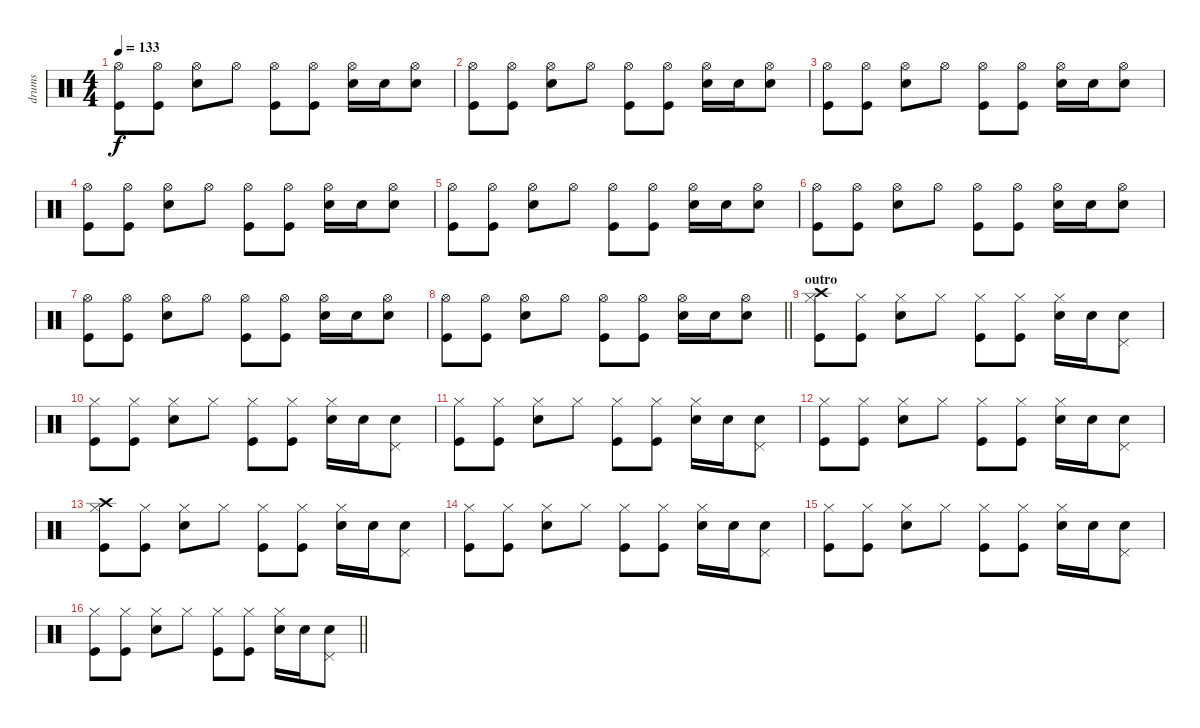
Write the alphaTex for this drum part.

\track ("drums" "drums") {instrument percussion}
\staff {score}
\articulation defaults
\ts (4 4)
\tempo 133
\clef neutral
\ks c
("Kick (hit)" "Hi-Hat (open)").8{dy f} ("Kick (hit)" "Hi-Hat (open)").8 ("Electric Snare (hit)" "Hi-Hat (open)").8 "Hi-Hat (open)".8 ("Kick (hit)" "Hi-Hat (open)").8 ("Kick (hit)" "Hi-Hat (open)").8 ("Electric Snare (hit)" "Hi-Hat (open)").16 "Electric Snare (hit)".16 ("Electric Snare (hit)" "Hi-Hat (open)").8 |
("Kick (hit)" "Hi-Hat (open)").8 ("Kick (hit)" "Hi-Hat (open)").8 ("Electric Snare (hit)" "Hi-Hat (open)").8 "Hi-Hat (open)".8 ("Kick (hit)" "Hi-Hat (open)").8 ("Kick (hit)" "Hi-Hat (open)").8 ("Electric Snare (hit)" "Hi-Hat (open)").16 "Electric Snare (hit)".16 ("Electric Snare (hit)" "Hi-Hat (open)").8 |
("Kick (hit)" "Hi-Hat (open)").8 ("Kick (hit)" "Hi-Hat (open)").8 ("Electric Snare (hit)" "Hi-Hat (open)").8 "Hi-Hat (open)".8 ("Kick (hit)" "Hi-Hat (open)").8 ("Kick (hit)" "Hi-Hat (open)").8 ("Electric Snare (hit)" "Hi-Hat (open)").16 "Electric Snare (hit)".16 ("Electric Snare (hit)" "Hi-Hat (open)").8 |
("Kick (hit)" "Hi-Hat (open)").8 ("Kick (hit)" "Hi-Hat (open)").8 ("Electric Snare (hit)" "Hi-Hat (open)").8 "Hi-Hat (open)".8 ("Kick (hit)" "Hi-Hat (open)").8 ("Kick (hit)" "Hi-Hat (open)").8 ("Electric Snare (hit)" "Hi-Hat (open)").16 "Electric Snare (hit)".16 ("Electric Snare (hit)" "Hi-Hat (open)").8 |
("Kick (hit)" "Hi-Hat (open)").8 ("Kick (hit)" "Hi-Hat (open)").8 ("Electric Snare (hit)" "Hi-Hat (open)").8 "Hi-Hat (open)".8 ("Kick (hit)" "Hi-Hat (open)").8 ("Kick (hit)" "Hi-Hat (open)").8 ("Electric Snare (hit)" "Hi-Hat (open)").16 "Electric Snare (hit)".16 ("Electric Snare (hit)" "Hi-Hat (open)").8 |
("Kick (hit)" "Hi-Hat (open)").8 ("Kick (hit)" "Hi-Hat (open)").8 ("Electric Snare (hit)" "Hi-Hat (open)").8 "Hi-Hat (open)".8 ("Kick (hit)" "Hi-Hat (open)").8 ("Kick (hit)" "Hi-Hat (open)").8 ("Electric Snare (hit)" "Hi-Hat (open)").16 "Electric Snare (hit)".16 ("Electric Snare (hit)" "Hi-Hat (open)").8 |
("Kick (hit)" "Hi-Hat (open)").8 ("Kick (hit)" "Hi-Hat (open)").8 ("Electric Snare (hit)" "Hi-Hat (open)").8 "Hi-Hat (open)".8 ("Kick (hit)" "Hi-Hat (open)").8 ("Kick (hit)" "Hi-Hat (open)").8 ("Electric Snare (hit)" "Hi-Hat (open)").16 "Electric Snare (hit)".16 ("Electric Snare (hit)" "Hi-Hat (open)").8 |
\barLineRight lightlight
("Kick (hit)" "Hi-Hat (open)").8 ("Kick (hit)" "Hi-Hat (open)").8 ("Electric Snare (hit)" "Hi-Hat (open)").8 "Hi-Hat (open)".8 ("Kick (hit)" "Hi-Hat (open)").8 ("Kick (hit)" "Hi-Hat (open)").8 ("Electric Snare (hit)" "Hi-Hat (open)").16 "Electric Snare (hit)".16 ("Electric Snare (hit)" "Hi-Hat (open)").8 |
\section ("" "outro")
("Kick (hit)" "Hi-Hat (closed)" "Crash high (hit)").8 ("Kick (hit)" "Hi-Hat (closed)").8 ("Electric Snare (hit)" "Hi-Hat (closed)").8 "Hi-Hat (closed)".8 ("Kick (hit)" "Hi-Hat (closed)").8 ("Kick (hit)" "Hi-Hat (closed)").8 ("Electric Snare (hit)" "Hi-Hat (closed)").16 "Electric Snare (hit)".16 ("Electric Snare (hit)" "Pedal Hi-Hat (hit)").8 |
("Kick (hit)" "Hi-Hat (closed)").8 ("Kick (hit)" "Hi-Hat (closed)").8 ("Electric Snare (hit)" "Hi-Hat (closed)").8 "Hi-Hat (closed)".8 ("Kick (hit)" "Hi-Hat (closed)").8 ("Kick (hit)" "Hi-Hat (closed)").8 ("Electric Snare (hit)" "Hi-Hat (closed)").16 "Electric Snare (hit)".16 ("Electric Snare (hit)" "Pedal Hi-Hat (hit)").8 |
("Kick (hit)" "Hi-Hat (closed)").8 ("Kick (hit)" "Hi-Hat (closed)").8 ("Electric Snare (hit)" "Hi-Hat (closed)").8 "Hi-Hat (closed)".8 ("Kick (hit)" "Hi-Hat (closed)").8 ("Kick (hit)" "Hi-Hat (closed)").8 ("Electric Snare (hit)" "Hi-Hat (closed)").16 "Electric Snare (hit)".16 ("Electric Snare (hit)" "Pedal Hi-Hat (hit)").8 |
("Kick (hit)" "Hi-Hat (closed)").8 ("Kick (hit)" "Hi-Hat (closed)").8 ("Electric Snare (hit)" "Hi-Hat (closed)").8 "Hi-Hat (closed)".8 ("Kick (hit)" "Hi-Hat (closed)").8 ("Kick (hit)" "Hi-Hat (closed)").8 ("Electric Snare (hit)" "Hi-Hat (closed)").16 "Electric Snare (hit)".16 ("Electric Snare (hit)" "Pedal Hi-Hat (hit)").8 |
("Kick (hit)" "Hi-Hat (closed)" "Crash high (hit)").8 ("Kick (hit)" "Hi-Hat (closed)").8 ("Electric Snare (hit)" "Hi-Hat (closed)").8 "Hi-Hat (closed)".8 ("Kick (hit)" "Hi-Hat (closed)").8 ("Kick (hit)" "Hi-Hat (closed)").8 ("Electric Snare (hit)" "Hi-Hat (closed)").16 "Electric Snare (hit)".16 ("Electric Snare (hit)" "Pedal Hi-Hat (hit)").8 |
("Kick (hit)" "Hi-Hat (closed)").8 ("Kick (hit)" "Hi-Hat (closed)").8 ("Electric Snare (hit)" "Hi-Hat (closed)").8 "Hi-Hat (closed)".8 ("Kick (hit)" "Hi-Hat (closed)").8 ("Kick (hit)" "Hi-Hat (closed)").8 ("Electric Snare (hit)" "Hi-Hat (closed)").16 "Electric Snare (hit)".16 ("Electric Snare (hit)" "Pedal Hi-Hat (hit)").8 |
("Kick (hit)" "Hi-Hat (closed)").8 ("Kick (hit)" "Hi-Hat (closed)").8 ("Electric Snare (hit)" "Hi-Hat (closed)").8 "Hi-Hat (closed)".8 ("Kick (hit)" "Hi-Hat (closed)").8 ("Kick (hit)" "Hi-Hat (closed)").8 ("Electric Snare (hit)" "Hi-Hat (closed)").16 "Electric Snare (hit)".16 ("Electric Snare (hit)" "Pedal Hi-Hat (hit)").8 |
\barLineRight lightlight
("Kick (hit)" "Hi-Hat (closed)").8 ("Kick (hit)" "Hi-Hat (closed)").8 ("Electric Snare (hit)" "Hi-Hat (closed)").8 "Hi-Hat (closed)".8 ("Kick (hit)" "Hi-Hat (closed)").8 ("Kick (hit)" "Hi-Hat (closed)").8 ("Electric Snare (hit)" "Hi-Hat (closed)").16 "Electric Snare (hit)".16 ("Electric Snare (hit)" "Pedal Hi-Hat (hit)").8
